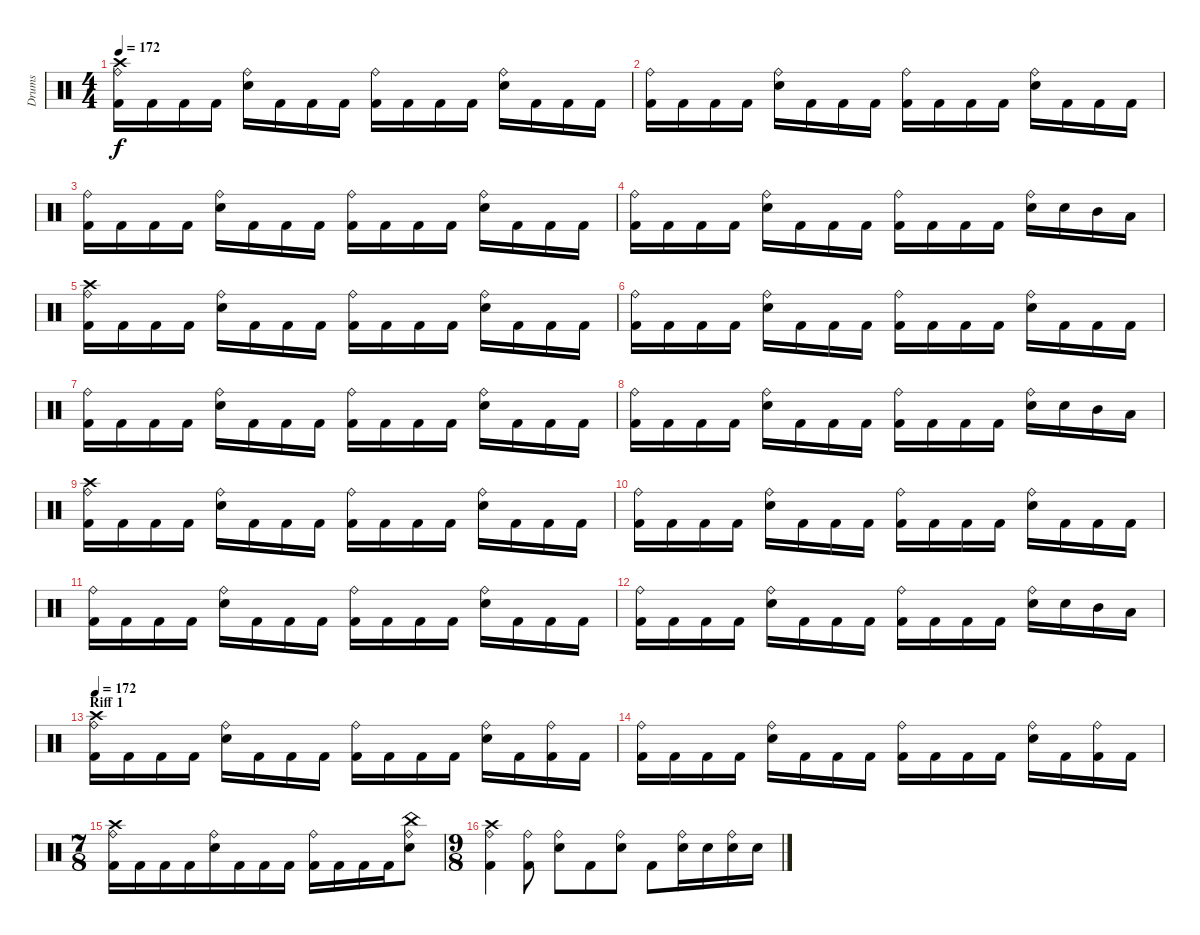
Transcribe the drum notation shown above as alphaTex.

\track ("Drums" "Drums") {instrument percussion}
\staff {score}
\articulation defaults
\ts (4 4)
\tempo 172
\clef neutral
\ks c
("Crash high (hit)" "Ride (bell)" "Kick (hit) 2").16{dy f} "Kick (hit) 2".16 "Kick (hit) 2".16 "Kick (hit) 2".16 ("Ride (bell)" "Electric Snare (hit)").16 "Kick (hit) 2".16 "Kick (hit) 2".16 "Kick (hit) 2".16 ("Ride (bell)" "Kick (hit) 2").16 "Kick (hit) 2".16 "Kick (hit) 2".16 "Kick (hit) 2".16 ("Ride (bell)" "Electric Snare (hit)").16 "Kick (hit) 2".16 "Kick (hit) 2".16 "Kick (hit) 2".16 |
("Ride (bell)" "Kick (hit) 2").16 "Kick (hit) 2".16 "Kick (hit) 2".16 "Kick (hit) 2".16 ("Ride (bell)" "Electric Snare (hit)").16 "Kick (hit) 2".16 "Kick (hit) 2".16 "Kick (hit) 2".16 ("Ride (bell)" "Kick (hit) 2").16 "Kick (hit) 2".16 "Kick (hit) 2".16 "Kick (hit) 2".16 ("Ride (bell)" "Electric Snare (hit)").16 "Kick (hit) 2".16 "Kick (hit) 2".16 "Kick (hit) 2".16 |
("Ride (bell)" "Kick (hit) 2").16 "Kick (hit) 2".16 "Kick (hit) 2".16 "Kick (hit) 2".16 ("Ride (bell)" "Electric Snare (hit)").16 "Kick (hit) 2".16 "Kick (hit) 2".16 "Kick (hit) 2".16 ("Ride (bell)" "Kick (hit) 2").16 "Kick (hit) 2".16 "Kick (hit) 2".16 "Kick (hit) 2".16 ("Ride (bell)" "Electric Snare (hit)").16 "Kick (hit) 2".16 "Kick (hit) 2".16 "Kick (hit) 2".16 |
("Ride (bell)" "Kick (hit) 2").16 "Kick (hit) 2".16 "Kick (hit) 2".16 "Kick (hit) 2".16 ("Ride (bell)" "Electric Snare (hit)").16 "Kick (hit) 2".16 "Kick (hit) 2".16 "Kick (hit) 2".16 ("Ride (bell)" "Kick (hit) 2").16 "Kick (hit) 2".16 "Kick (hit) 2".16 "Kick (hit) 2".16 ("Ride (bell)" "Electric Snare (hit)").16 "Electric Snare (hit)".16 "Mid Tom (hit)".16 "Low Tom (hit)".16 |
("Crash high (hit)" "Ride (bell)" "Kick (hit) 2").16 "Kick (hit) 2".16 "Kick (hit) 2".16 "Kick (hit) 2".16 ("Ride (bell)" "Electric Snare (hit)").16 "Kick (hit) 2".16 "Kick (hit) 2".16 "Kick (hit) 2".16 ("Ride (bell)" "Kick (hit) 2").16 "Kick (hit) 2".16 "Kick (hit) 2".16 "Kick (hit) 2".16 ("Ride (bell)" "Electric Snare (hit)").16 "Kick (hit) 2".16 "Kick (hit) 2".16 "Kick (hit) 2".16 |
("Ride (bell)" "Kick (hit) 2").16 "Kick (hit) 2".16 "Kick (hit) 2".16 "Kick (hit) 2".16 ("Ride (bell)" "Electric Snare (hit)").16 "Kick (hit) 2".16 "Kick (hit) 2".16 "Kick (hit) 2".16 ("Ride (bell)" "Kick (hit) 2").16 "Kick (hit) 2".16 "Kick (hit) 2".16 "Kick (hit) 2".16 ("Ride (bell)" "Electric Snare (hit)").16 "Kick (hit) 2".16 "Kick (hit) 2".16 "Kick (hit) 2".16 |
("Ride (bell)" "Kick (hit) 2").16 "Kick (hit) 2".16 "Kick (hit) 2".16 "Kick (hit) 2".16 ("Ride (bell)" "Electric Snare (hit)").16 "Kick (hit) 2".16 "Kick (hit) 2".16 "Kick (hit) 2".16 ("Ride (bell)" "Kick (hit) 2").16 "Kick (hit) 2".16 "Kick (hit) 2".16 "Kick (hit) 2".16 ("Ride (bell)" "Electric Snare (hit)").16 "Kick (hit) 2".16 "Kick (hit) 2".16 "Kick (hit) 2".16 |
("Ride (bell)" "Kick (hit) 2").16 "Kick (hit) 2".16 "Kick (hit) 2".16 "Kick (hit) 2".16 ("Ride (bell)" "Electric Snare (hit)").16 "Kick (hit) 2".16 "Kick (hit) 2".16 "Kick (hit) 2".16 ("Ride (bell)" "Kick (hit) 2").16 "Kick (hit) 2".16 "Kick (hit) 2".16 "Kick (hit) 2".16 ("Ride (bell)" "Electric Snare (hit)").16 "Electric Snare (hit)".16 "Mid Tom (hit)".16 "Low Tom (hit)".16 |
("Crash high (hit)" "Ride (bell)" "Kick (hit) 2").16 "Kick (hit) 2".16 "Kick (hit) 2".16 "Kick (hit) 2".16 ("Ride (bell)" "Electric Snare (hit)").16 "Kick (hit) 2".16 "Kick (hit) 2".16 "Kick (hit) 2".16 ("Ride (bell)" "Kick (hit) 2").16 "Kick (hit) 2".16 "Kick (hit) 2".16 "Kick (hit) 2".16 ("Ride (bell)" "Electric Snare (hit)").16 "Kick (hit) 2".16 "Kick (hit) 2".16 "Kick (hit) 2".16 |
("Ride (bell)" "Kick (hit) 2").16 "Kick (hit) 2".16 "Kick (hit) 2".16 "Kick (hit) 2".16 ("Ride (bell)" "Electric Snare (hit)").16 "Kick (hit) 2".16 "Kick (hit) 2".16 "Kick (hit) 2".16 ("Ride (bell)" "Kick (hit) 2").16 "Kick (hit) 2".16 "Kick (hit) 2".16 "Kick (hit) 2".16 ("Ride (bell)" "Electric Snare (hit)").16 "Kick (hit) 2".16 "Kick (hit) 2".16 "Kick (hit) 2".16 |
("Ride (bell)" "Kick (hit) 2").16 "Kick (hit) 2".16 "Kick (hit) 2".16 "Kick (hit) 2".16 ("Ride (bell)" "Electric Snare (hit)").16 "Kick (hit) 2".16 "Kick (hit) 2".16 "Kick (hit) 2".16 ("Ride (bell)" "Kick (hit) 2").16 "Kick (hit) 2".16 "Kick (hit) 2".16 "Kick (hit) 2".16 ("Ride (bell)" "Electric Snare (hit)").16 "Kick (hit) 2".16 "Kick (hit) 2".16 "Kick (hit) 2".16 |
("Ride (bell)" "Kick (hit) 2").16 "Kick (hit) 2".16 "Kick (hit) 2".16 "Kick (hit) 2".16 ("Ride (bell)" "Electric Snare (hit)").16 "Kick (hit) 2".16 "Kick (hit) 2".16 "Kick (hit) 2".16 ("Ride (bell)" "Kick (hit) 2").16 "Kick (hit) 2".16 "Kick (hit) 2".16 "Kick (hit) 2".16 ("Ride (bell)" "Electric Snare (hit)").16 "Electric Snare (hit)".16 "Mid Tom (hit)".16 "Low Tom (hit)".16 |
\section ("" "Riff 1")
\tempo 172
("Crash high (hit)" "Ride (bell)" "Kick (hit) 2").16 "Kick (hit) 2".16 "Kick (hit) 2".16 "Kick (hit) 2".16 ("Ride (bell)" "Electric Snare (hit)").16 "Kick (hit) 2".16 "Kick (hit) 2".16 "Kick (hit) 2".16 ("Ride (bell)" "Kick (hit) 2").16 "Kick (hit) 2".16 "Kick (hit) 2".16 "Kick (hit) 2".16 ("Ride (bell)" "Electric Snare (hit)").16 "Kick (hit) 2".16 ("Ride (bell)" "Kick (hit) 2").16 "Kick (hit) 2".16 |
("Ride (bell)" "Kick (hit) 2").16 "Kick (hit) 2".16 "Kick (hit) 2".16 "Kick (hit) 2".16 ("Ride (bell)" "Electric Snare (hit)").16 "Kick (hit) 2".16 "Kick (hit) 2".16 "Kick (hit) 2".16 ("Ride (bell)" "Kick (hit) 2").16 "Kick (hit) 2".16 "Kick (hit) 2".16 "Kick (hit) 2".16 ("Ride (bell)" "Electric Snare (hit)").16 "Kick (hit) 2".16 ("Ride (bell)" "Kick (hit) 2").16 "Kick (hit) 2".16 |
\ts (7 8)
("Crash high (hit)" "Ride (bell)" "Kick (hit) 2").16 "Kick (hit) 2".16 "Kick (hit) 2".16 "Kick (hit) 2".16 ("Ride (bell)" "Electric Snare (hit)").16 "Kick (hit) 2".16 "Kick (hit) 2".16 "Kick (hit) 2".16 ("Ride (bell)" "Kick (hit) 2").16 "Kick (hit) 2".16 "Kick (hit) 2".16 "Kick (hit) 2".16 ("China (hit)" "Ride (bell)" "Electric Snare (hit)").8 |
\ts (9 8)
("Crash high (hit)" "Ride (bell)" "Kick (hit) 2").4 ("Ride (bell)" "Kick (hit) 2").8 ("Ride (bell)" "Electric Snare (hit)").8 "Kick (hit) 2".8 ("Ride (bell)" "Electric Snare (hit)").8 "Kick (hit) 2".8 ("Ride (bell)" "Electric Snare (hit)").16 "Electric Snare (hit)".16 ("Ride (bell)" "Electric Snare (hit)").16 "Electric Snare (hit)".16
